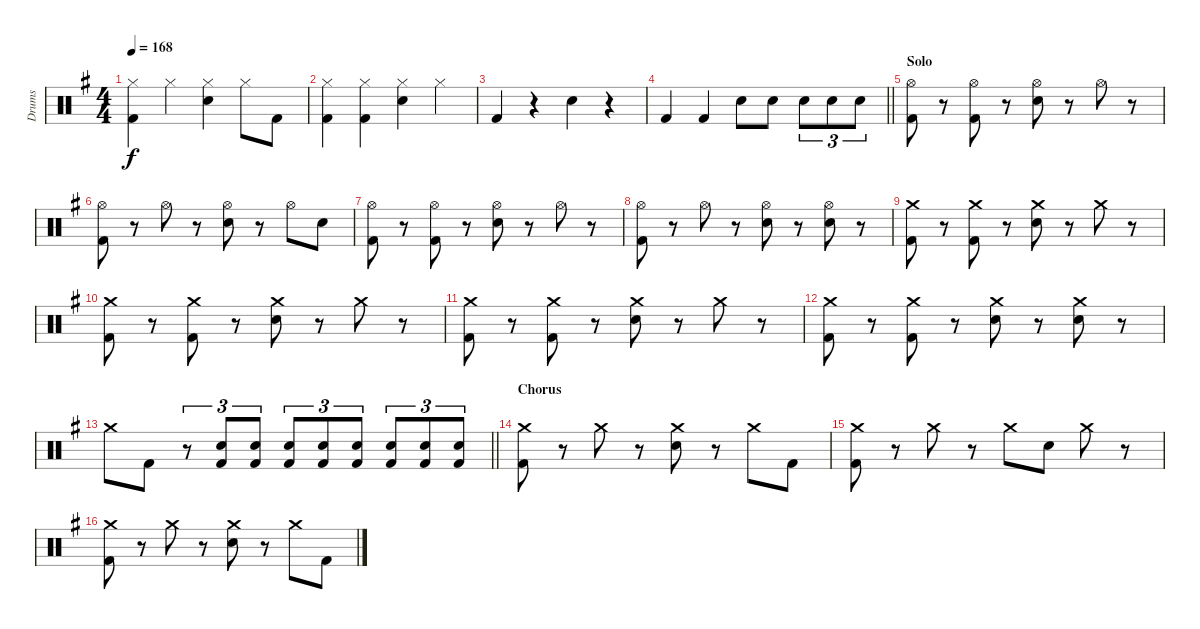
\track ("Drums" "Drums") {instrument percussion}
\staff {score}
\articulation defaults
\ts (4 4)
\tempo 168
\clef neutral
\ks g
("Hi-Hat (closed)" "Kick (hit) 2").4{dy f} "Hi-Hat (closed)".4 ("Hi-Hat (closed)" "Electric Snare (hit)").4 "Hi-Hat (closed)".8 "Kick (hit) 2".8 |
("Hi-Hat (closed)" "Kick (hit) 2").4 ("Hi-Hat (closed)" "Kick (hit) 2").4 ("Hi-Hat (closed)" "Electric Snare (hit)").4 "Hi-Hat (closed)".4 |
"Kick (hit) 2".4 r.4 "Electric Snare (hit)".4 r.4 |
\barLineRight lightlight "Kick (hit) 2".4 "Kick (hit) 2".4 "Electric Snare (hit)".8 "Electric Snare (hit)".8 "Electric Snare (hit)".8{tu (3 2)} "Electric Snare (hit)".8{tu (3 2)} "Electric Snare (hit)".8{tu (3 2)}
|
\section ("" "Solo")
("Hi-Hat (open)" "Kick (hit) 2").8 r.8 ("Hi-Hat (open)" "Kick (hit) 2").8 r.8 ("Hi-Hat (open)" "Electric Snare (hit)").8 r.8 "Hi-Hat (open)".8 r.8 |
("Hi-Hat (open)" "Kick (hit) 2").8 r.8 "Hi-Hat (open)".8 r.8 ("Hi-Hat (open)" "Electric Snare (hit)").8 r.8 "Hi-Hat (open)".8 "Electric Snare (hit)".8 |
("Hi-Hat (open)" "Kick (hit) 2").8 r.8 ("Hi-Hat (open)" "Kick (hit) 2").8 r.8 ("Hi-Hat (open)" "Electric Snare (hit)").8 r.8 "Hi-Hat (open)".8 r.8 |
("Hi-Hat (open)" "Kick (hit) 2").8 r.8 "Hi-Hat (open)".8 r.8 ("Hi-Hat (open)" "Electric Snare (hit)").8 r.8 ("Hi-Hat (open)" "Electric Snare (hit)").8 r.8 |
("Crash medium (hit)" "Kick (hit) 2").8 r.8 ("Crash medium (hit)" "Kick (hit) 2").8 r.8 ("Crash medium (hit)" "Electric Snare (hit)").8 r.8 "Crash medium (hit)".8 r.8 |
("Crash medium (hit)" "Kick (hit) 2").8 r.8 ("Crash medium (hit)" "Kick (hit) 2").8 r.8 ("Crash medium (hit)" "Electric Snare (hit)").8 r.8 "Crash medium (hit)".8 r.8 |
("Crash medium (hit)" "Kick (hit) 2").8 r.8 ("Crash medium (hit)" "Kick (hit) 2").8 r.8 ("Crash medium (hit)" "Electric Snare (hit)").8 r.8 "Crash medium (hit)".8 r.8 |
("Crash medium (hit)" "Kick (hit) 2").8 r.8 ("Crash medium (hit)" "Kick (hit) 2").8 r.8 ("Crash medium (hit)" "Electric Snare (hit)").8 r.8 ("Crash medium (hit)" "Electric Snare (hit)").8 r.8 |
\barLineRight lightlight "Crash medium (hit)".8 "Kick (hit) 2".8
r.8{tu (3 2)} ("Electric Snare (hit)" "Kick (hit) 2").8{tu (3 2)} ("Electric Snare (hit)" "Kick (hit) 2").8{tu (3 2)} ("Electric Snare (hit)" "Kick (hit) 2").8{tu (3 2)} ("Electric Snare (hit)" "Kick (hit) 2").8{tu (3 2)} ("Electric Snare (hit)" "Kick (hit) 2").8{tu (3 2)} ("Electric Snare (hit)" "Kick (hit) 2").8{tu (3 2)} ("Electric Snare (hit)" "Kick (hit) 2").8{tu (3 2)} ("Electric Snare (hit)" "Kick (hit) 2").8{tu (3 2)} |
\section ("" "Chorus")
("Crash medium (hit)" "Kick (hit) 2").8 r.8 "Crash medium (hit)".8 r.8 ("Crash medium (hit)" "Electric Snare (hit)").8 r.8 "Crash medium (hit)".8 "Kick (hit) 2".8 |
("Crash medium (hit)" "Kick (hit) 2").8 r.8 "Crash medium (hit)".8 r.8 "Crash medium (hit)".8 "Electric Snare (hit)".8 "Crash medium (hit)".8 r.8 |
("Crash medium (hit)" "Kick (hit) 2").8 r.8 "Crash medium (hit)".8 r.8 ("Crash medium (hit)" "Electric Snare (hit)").8 r.8 "Crash medium (hit)".8 "Kick (hit) 2".8
